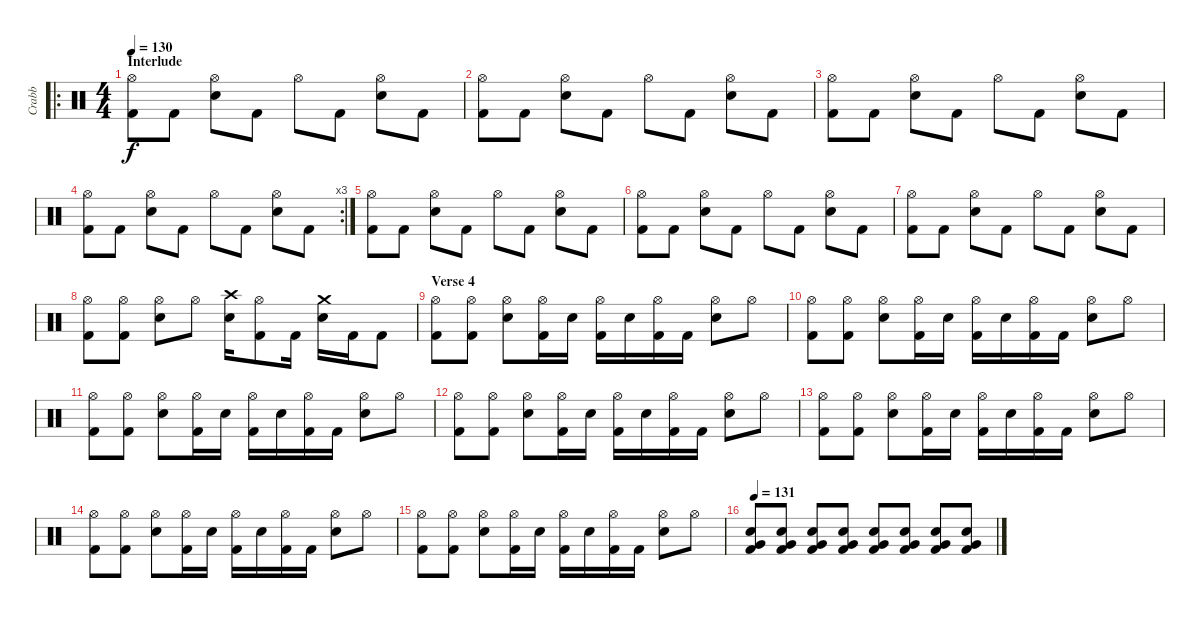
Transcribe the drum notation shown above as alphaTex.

\track ("Crabb" "Crabb") {instrument percussion}
\staff {score}
\articulation defaults
\ro
\ts (4 4)
\section ("" "Interlude")
\tempo 130
\clef neutral
\ks c
("Hi-Hat (open)" "Kick (hit) 2").8{dy f} "Kick (hit) 2".8 ("Hi-Hat (open)" "Electric Snare (hit)").8 "Kick (hit) 2".8 "Hi-Hat (open)".8 "Kick (hit) 2".8 ("Hi-Hat (open)" "Electric Snare (hit)").8 "Kick (hit) 2".8 |
("Hi-Hat (open)" "Kick (hit) 2").8 "Kick (hit) 2".8 ("Hi-Hat (open)" "Electric Snare (hit)").8 "Kick (hit) 2".8 "Hi-Hat (open)".8 "Kick (hit) 2".8 ("Hi-Hat (open)" "Electric Snare (hit)").8 "Kick (hit) 2".8 |
("Hi-Hat (open)" "Kick (hit) 2").8 "Kick (hit) 2".8 ("Hi-Hat (open)" "Electric Snare (hit)").8 "Kick (hit) 2".8 "Hi-Hat (open)".8 "Kick (hit) 2".8 ("Hi-Hat (open)" "Electric Snare (hit)").8 "Kick (hit) 2".8 |
\rc 3
("Hi-Hat (open)" "Kick (hit) 2").8 "Kick (hit) 2".8 ("Hi-Hat (open)" "Electric Snare (hit)").8 "Kick (hit) 2".8 "Hi-Hat (open)".8 "Kick (hit) 2".8 ("Hi-Hat (open)" "Electric Snare (hit)").8 "Kick (hit) 2".8 |
("Hi-Hat (open)" "Kick (hit) 2").8 "Kick (hit) 2".8 ("Hi-Hat (open)" "Electric Snare (hit)").8 "Kick (hit) 2".8 "Hi-Hat (open)".8 "Kick (hit) 2".8 ("Hi-Hat (open)" "Electric Snare (hit)").8 "Kick (hit) 2".8 |
("Hi-Hat (open)" "Kick (hit) 2").8 "Kick (hit) 2".8 ("Hi-Hat (open)" "Electric Snare (hit)").8 "Kick (hit) 2".8 "Hi-Hat (open)".8 "Kick (hit) 2".8 ("Hi-Hat (open)" "Electric Snare (hit)").8 "Kick (hit) 2".8 |
("Hi-Hat (open)" "Kick (hit) 2").8 "Kick (hit) 2".8 ("Hi-Hat (open)" "Electric Snare (hit)").8 "Kick (hit) 2".8 "Hi-Hat (open)".8 "Kick (hit) 2".8 ("Hi-Hat (open)" "Electric Snare (hit)").8 "Kick (hit) 2".8 |
("Hi-Hat (open)" "Kick (hit) 2").8 ("Hi-Hat (open)" "Kick (hit) 2").8 ("Hi-Hat (open)" "Electric Snare (hit)").8 "Hi-Hat (open)".8 ("Crash high (hit)" "Electric Snare (hit)").16 ("Hi-Hat (open)" "Kick (hit) 2").8 "Kick (hit) 2".16 ("Crash medium (hit)" "Electric Snare (hit)").16 "Kick (hit) 2".16 "Kick (hit) 2".8 |
\section ("" "Verse 4")
("Hi-Hat (open)" "Kick (hit) 2").8 ("Hi-Hat (open)" "Kick (hit) 2").8 ("Hi-Hat (open)" "Electric Snare (hit)").8 ("Hi-Hat (open)" "Kick (hit) 2").16 "Electric Snare (hit)".16 ("Hi-Hat (open)" "Kick (hit) 2").16 "Electric Snare (hit)".16 ("Hi-Hat (open)" "Kick (hit) 2").16 "Kick (hit) 2".16 ("Hi-Hat (open)" "Electric Snare (hit)").8 "Hi-Hat (open)".8 |
("Hi-Hat (open)" "Kick (hit) 2").8 ("Hi-Hat (open)" "Kick (hit) 2").8 ("Hi-Hat (open)" "Electric Snare (hit)").8 ("Hi-Hat (open)" "Kick (hit) 2").16 "Electric Snare (hit)".16 ("Hi-Hat (open)" "Kick (hit) 2").16 "Electric Snare (hit)".16 ("Hi-Hat (open)" "Kick (hit) 2").16 "Kick (hit) 2".16 ("Hi-Hat (open)" "Electric Snare (hit)").8 "Hi-Hat (open)".8 |
("Hi-Hat (open)" "Kick (hit) 2").8 ("Hi-Hat (open)" "Kick (hit) 2").8 ("Hi-Hat (open)" "Electric Snare (hit)").8 ("Hi-Hat (open)" "Kick (hit) 2").16 "Electric Snare (hit)".16 ("Hi-Hat (open)" "Kick (hit) 2").16 "Electric Snare (hit)".16 ("Hi-Hat (open)" "Kick (hit) 2").16 "Kick (hit) 2".16 ("Hi-Hat (open)" "Electric Snare (hit)").8 "Hi-Hat (open)".8 |
("Hi-Hat (open)" "Kick (hit) 2").8 ("Hi-Hat (open)" "Kick (hit) 2").8 ("Hi-Hat (open)" "Electric Snare (hit)").8 ("Hi-Hat (open)" "Kick (hit) 2").16 "Electric Snare (hit)".16 ("Hi-Hat (open)" "Kick (hit) 2").16 "Electric Snare (hit)".16 ("Hi-Hat (open)" "Kick (hit) 2").16 "Kick (hit) 2".16 ("Hi-Hat (open)" "Electric Snare (hit)").8 "Hi-Hat (open)".8 |
("Hi-Hat (open)" "Kick (hit) 2").8 ("Hi-Hat (open)" "Kick (hit) 2").8 ("Hi-Hat (open)" "Electric Snare (hit)").8 ("Hi-Hat (open)" "Kick (hit) 2").16 "Electric Snare (hit)".16 ("Hi-Hat (open)" "Kick (hit) 2").16 "Electric Snare (hit)".16 ("Hi-Hat (open)" "Kick (hit) 2").16 "Kick (hit) 2".16 ("Hi-Hat (open)" "Electric Snare (hit)").8 "Hi-Hat (open)".8 |
("Hi-Hat (open)" "Kick (hit) 2").8 ("Hi-Hat (open)" "Kick (hit) 2").8 ("Hi-Hat (open)" "Electric Snare (hit)").8 ("Hi-Hat (open)" "Kick (hit) 2").16 "Electric Snare (hit)".16 ("Hi-Hat (open)" "Kick (hit) 2").16 "Electric Snare (hit)".16 ("Hi-Hat (open)" "Kick (hit) 2").16 "Kick (hit) 2".16 ("Hi-Hat (open)" "Electric Snare (hit)").8 "Hi-Hat (open)".8 |
("Hi-Hat (open)" "Kick (hit) 2").8 ("Hi-Hat (open)" "Kick (hit) 2").8 ("Hi-Hat (open)" "Electric Snare (hit)").8 ("Hi-Hat (open)" "Kick (hit) 2").16 "Electric Snare (hit)".16 ("Hi-Hat (open)" "Kick (hit) 2").16 "Electric Snare (hit)".16 ("Hi-Hat (open)" "Kick (hit) 2").16 "Kick (hit) 2".16 ("Hi-Hat (open)" "Electric Snare (hit)").8 "Hi-Hat (open)".8 |
\tempo 131
("Very Low Tom (hit)" "Kick (hit) 2" "Electric Snare (hit)").8 ("Very Low Tom (hit)" "Kick (hit) 2" "Electric Snare (hit)").8 ("Very Low Tom (hit)" "Kick (hit) 2" "Electric Snare (hit)").8 ("Very Low Tom (hit)" "Kick (hit) 2" "Electric Snare (hit)").8 ("Very Low Tom (hit)" "Kick (hit) 2" "Electric Snare (hit)").8 ("Very Low Tom (hit)" "Kick (hit) 2" "Electric Snare (hit)").8 ("Very Low Tom (hit)" "Kick (hit) 2" "Electric Snare (hit)").8 ("Very Low Tom (hit)" "Kick (hit) 2" "Electric Snare (hit)").8
